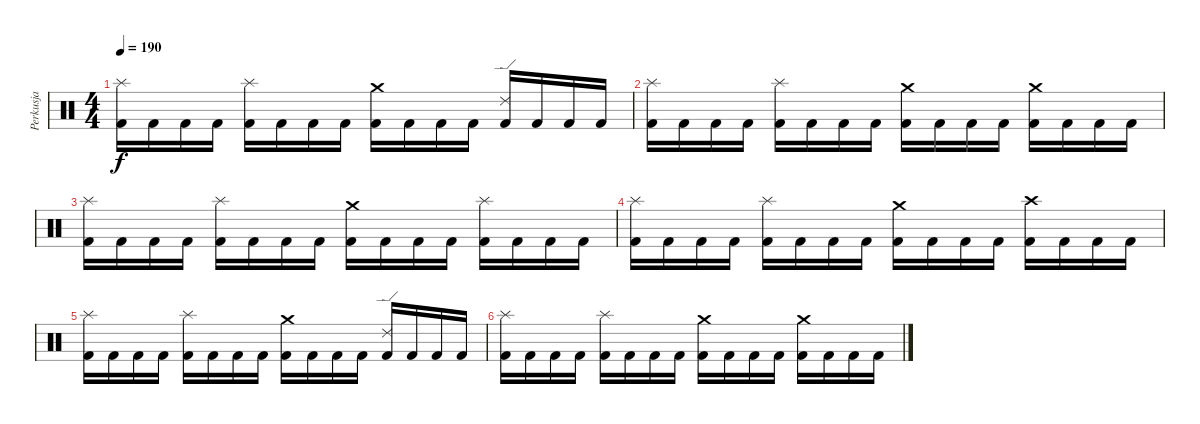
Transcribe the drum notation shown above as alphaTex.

\track ("Perkusja" "Perkusja") {instrument percussion}
\staff {score}
\articulation defaults
\ts (4 4)
\tempo 190
\clef neutral
\ks c
("Splash (hit)" "Kick (hit) 2").16{dy f} "Kick (hit) 2".16 "Kick (hit) 2".16 "Kick (hit) 2".16 ("Splash (hit)" "Kick (hit) 2").16 "Kick (hit) 2".16 "Kick (hit) 2".16 "Kick (hit) 2".16 ("Crash medium (hit)" "Kick (hit) 2").16 "Kick (hit) 2".16 "Kick (hit) 2".16 "Kick (hit) 2".16 ("Ride (edge) 2" "Kick (hit) 2").16 "Kick (hit) 2".16 "Kick (hit) 2".16 "Kick (hit) 2".16 |
("Splash (hit)" "Kick (hit) 2").16 "Kick (hit) 2".16 "Kick (hit) 2".16 "Kick (hit) 2".16 ("Splash (hit)" "Kick (hit) 2").16 "Kick (hit) 2".16 "Kick (hit) 2".16 "Kick (hit) 2".16 ("Crash medium (hit)" "Kick (hit) 2").16 "Kick (hit) 2".16 "Kick (hit) 2".16 "Kick (hit) 2".16 ("Crash medium (hit)" "Kick (hit) 2").16 "Kick (hit) 2".16 "Kick (hit) 2".16 "Kick (hit) 2".16 |
("Splash (hit)" "Kick (hit) 2").16 "Kick (hit) 2".16 "Kick (hit) 2".16 "Kick (hit) 2".16 ("Splash (hit)" "Kick (hit) 2").16 "Kick (hit) 2".16 "Kick (hit) 2".16 "Kick (hit) 2".16 ("Crash medium (hit)" "Kick (hit) 2").16 "Kick (hit) 2".16 "Kick (hit) 2".16 "Kick (hit) 2".16 ("Splash (hit)" "Kick (hit) 2").16 "Kick (hit) 2".16 "Kick (hit) 2".16 "Kick (hit) 2".16 |
("Splash (hit)" "Kick (hit) 2").16 "Kick (hit) 2".16 "Kick (hit) 2".16 "Kick (hit) 2".16 ("Splash (hit)" "Kick (hit) 2").16 "Kick (hit) 2".16 "Kick (hit) 2".16 "Kick (hit) 2".16 ("Crash medium (hit)" "Kick (hit) 2").16 "Kick (hit) 2".16 "Kick (hit) 2".16 "Kick (hit) 2".16 ("Crash high (hit)" "Kick (hit) 2").16 "Kick (hit) 2".16 "Kick (hit) 2".16 "Kick (hit) 2".16 |
("Splash (hit)" "Kick (hit) 2").16 "Kick (hit) 2".16 "Kick (hit) 2".16 "Kick (hit) 2".16 ("Splash (hit)" "Kick (hit) 2").16 "Kick (hit) 2".16 "Kick (hit) 2".16 "Kick (hit) 2".16 ("Crash medium (hit)" "Kick (hit) 2").16 "Kick (hit) 2".16 "Kick (hit) 2".16 "Kick (hit) 2".16 ("Ride (edge) 2" "Kick (hit) 2").16 "Kick (hit) 2".16 "Kick (hit) 2".16 "Kick (hit) 2".16 |
("Splash (hit)" "Kick (hit) 2").16 "Kick (hit) 2".16 "Kick (hit) 2".16 "Kick (hit) 2".16 ("Splash (hit)" "Kick (hit) 2").16 "Kick (hit) 2".16 "Kick (hit) 2".16 "Kick (hit) 2".16 ("Crash medium (hit)" "Kick (hit) 2").16 "Kick (hit) 2".16 "Kick (hit) 2".16 "Kick (hit) 2".16 ("Crash medium (hit)" "Kick (hit) 2").16 "Kick (hit) 2".16 "Kick (hit) 2".16 "Kick (hit) 2".16
